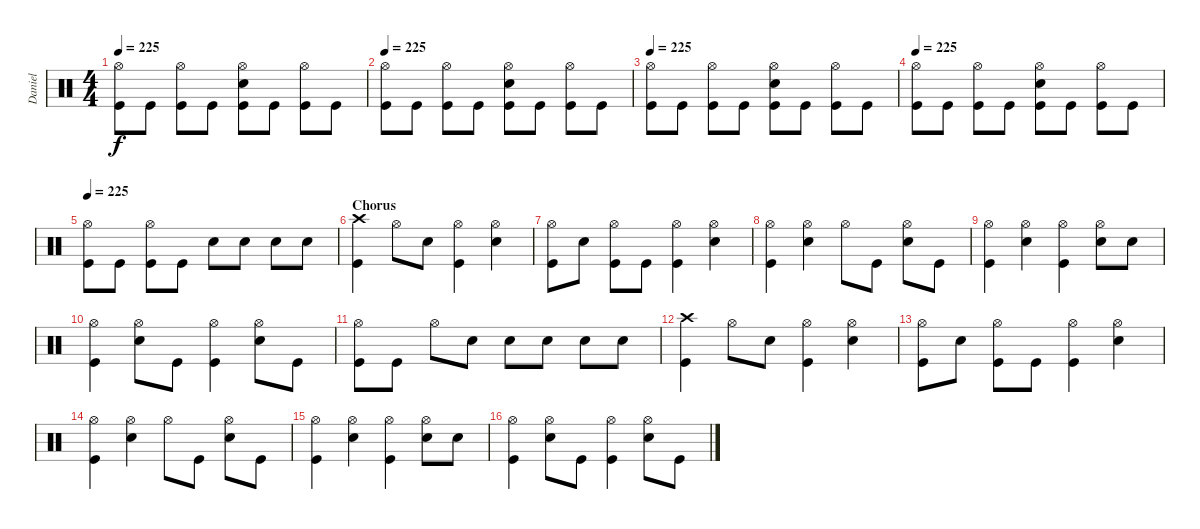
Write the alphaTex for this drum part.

\track ("Daniel" "Daniel") {instrument percussion}
\staff {score}
\articulation defaults
\ts (4 4)
\tempo 225
\clef neutral
\ks c
("Hi-Hat (open)" "Kick (hit)").8{dy f} "Kick (hit)".8 ("Hi-Hat (open)" "Kick (hit)").8 "Kick (hit)".8 ("Hi-Hat (open)" "Snare (hit) 2" "Kick (hit)").8 "Kick (hit)".8 ("Hi-Hat (open)" "Kick (hit)").8 "Kick (hit)".8 |
\tempo 225
("Hi-Hat (open)" "Kick (hit)").8 "Kick (hit)".8 ("Hi-Hat (open)" "Kick (hit)").8 "Kick (hit)".8 ("Hi-Hat (open)" "Snare (hit) 2" "Kick (hit)").8 "Kick (hit)".8 ("Hi-Hat (open)" "Kick (hit)").8 "Kick (hit)".8 |
\tempo 225
("Hi-Hat (open)" "Kick (hit)").8 "Kick (hit)".8 ("Hi-Hat (open)" "Kick (hit)").8 "Kick (hit)".8 ("Hi-Hat (open)" "Snare (hit) 2" "Kick (hit)").8 "Kick (hit)".8 ("Hi-Hat (open)" "Kick (hit)").8 "Kick (hit)".8 |
\tempo 225
("Hi-Hat (open)" "Kick (hit)").8 "Kick (hit)".8 ("Hi-Hat (open)" "Kick (hit)").8 "Kick (hit)".8 ("Hi-Hat (open)" "Snare (hit) 2" "Kick (hit)").8 "Kick (hit)".8 ("Hi-Hat (open)" "Kick (hit)").8 "Kick (hit)".8 |
\tempo 225
("Hi-Hat (open)" "Kick (hit)").8 "Kick (hit)".8 ("Hi-Hat (open)" "Kick (hit)").8 "Kick (hit)".8 "Snare (hit) 2".8 "Snare (hit) 2".8 "Snare (hit) 2".8 "Snare (hit) 2".8 |
\section ("" "Chorus")
("Crash high (hit)" "Kick (hit)").4 "Hi-Hat (open)".8 "Snare (hit) 2".8 ("Hi-Hat (open)" "Kick (hit)").4 ("Hi-Hat (open)" "Snare (hit) 2").4 |
("Hi-Hat (open)" "Kick (hit)").8 "Snare (hit) 2".8 ("Hi-Hat (open)" "Kick (hit)").8 "Kick (hit)".8 ("Hi-Hat (open)" "Kick (hit)").4 ("Hi-Hat (open)" "Snare (hit) 2").4 |
("Hi-Hat (open)" "Kick (hit)").4 ("Hi-Hat (open)" "Snare (hit) 2").4 "Hi-Hat (open)".8 "Kick (hit)".8 ("Hi-Hat (open)" "Snare (hit) 2").8 "Kick (hit)".8 |
("Hi-Hat (open)" "Kick (hit)").4 ("Hi-Hat (open)" "Snare (hit) 2").4 ("Hi-Hat (open)" "Kick (hit)").4 ("Hi-Hat (open)" "Snare (hit) 2").8 "Snare (hit) 2".8 |
("Hi-Hat (open)" "Kick (hit)").4 ("Hi-Hat (open)" "Snare (hit) 2").8 "Kick (hit)".8 ("Hi-Hat (open)" "Kick (hit)").4 ("Hi-Hat (open)" "Snare (hit) 2").8 "Kick (hit)".8 |
("Hi-Hat (open)" "Kick (hit)").8 "Kick (hit)".8 "Hi-Hat (open)".8 "Snare (hit) 2".8 "Snare (hit) 2".8 "Snare (hit) 2".8 "Snare (hit) 2".8 "Snare (hit) 2".8 |
("Crash high (hit)" "Kick (hit)").4 "Hi-Hat (open)".8 "Snare (hit) 2".8 ("Hi-Hat (open)" "Kick (hit)").4 ("Hi-Hat (open)" "Snare (hit) 2").4 |
("Hi-Hat (open)" "Kick (hit)").8 "Snare (hit) 2".8 ("Hi-Hat (open)" "Kick (hit)").8 "Kick (hit)".8 ("Hi-Hat (open)" "Kick (hit)").4 ("Hi-Hat (open)" "Snare (hit) 2").4 |
("Hi-Hat (open)" "Kick (hit)").4 ("Hi-Hat (open)" "Snare (hit) 2").4 "Hi-Hat (open)".8 "Kick (hit)".8 ("Hi-Hat (open)" "Snare (hit) 2").8 "Kick (hit)".8 |
("Hi-Hat (open)" "Kick (hit)").4 ("Hi-Hat (open)" "Snare (hit) 2").4 ("Hi-Hat (open)" "Kick (hit)").4 ("Hi-Hat (open)" "Snare (hit) 2").8 "Snare (hit) 2".8 |
("Hi-Hat (open)" "Kick (hit)").4 ("Hi-Hat (open)" "Snare (hit) 2").8 "Kick (hit)".8 ("Hi-Hat (open)" "Kick (hit)").4 ("Hi-Hat (open)" "Snare (hit) 2").8 "Kick (hit)".8
